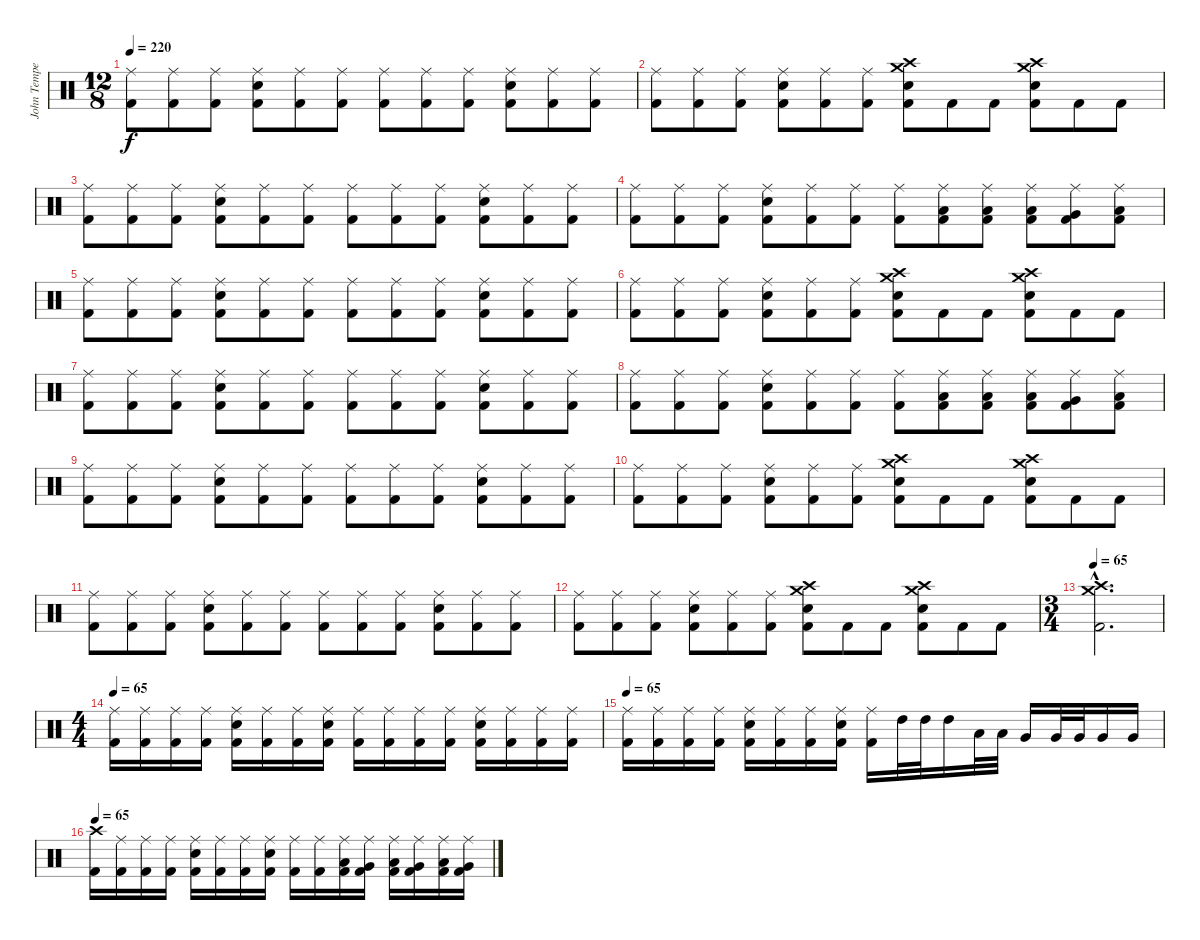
\track ("John Tempesta" "John Tempe") {instrument percussion}
\staff {score}
\articulation defaults
\ts (12 8)
\tempo 220
\clef neutral
\ks c
("Ride (middle)" "Kick (hit) 2").8{dy f} ("Ride (middle)" "Kick (hit) 2").8 ("Ride (middle)" "Kick (hit) 2").8 ("Ride (middle)" "Electric Snare (hit)" "Kick (hit) 2").8 ("Ride (middle)" "Kick (hit) 2").8 ("Ride (middle)" "Kick (hit) 2").8 ("Ride (middle)" "Kick (hit) 2").8 ("Ride (middle)" "Kick (hit) 2").8 ("Ride (middle)" "Kick (hit) 2").8 ("Ride (middle)" "Electric Snare (hit)" "Kick (hit) 2").8 ("Ride (middle)" "Kick (hit) 2").8 ("Ride (middle)" "Kick (hit) 2").8 |
("Ride (middle)" "Kick (hit) 2").8 ("Ride (middle)" "Kick (hit) 2").8 ("Ride (middle)" "Kick (hit) 2").8 ("Ride (middle)" "Electric Snare (hit)" "Kick (hit) 2").8 ("Ride (middle)" "Kick (hit) 2").8 ("Ride (middle)" "Kick (hit) 2").8 ("Crash medium (hit)" "Crash high (hit)" "Electric Snare (hit)" "Kick (hit) 2").8 "Kick (hit) 2".8 "Kick (hit) 2".8 ("Crash medium (hit)" "Crash high (hit)" "Electric Snare (hit)" "Kick (hit) 2").8 "Kick (hit) 2".8 "Kick (hit) 2".8 |
("Ride (middle)" "Kick (hit) 2").8 ("Ride (middle)" "Kick (hit) 2").8 ("Ride (middle)" "Kick (hit) 2").8 ("Ride (middle)" "Electric Snare (hit)" "Kick (hit) 2").8 ("Ride (middle)" "Kick (hit) 2").8 ("Ride (middle)" "Kick (hit) 2").8 ("Ride (middle)" "Kick (hit) 2").8 ("Ride (middle)" "Kick (hit) 2").8 ("Ride (middle)" "Kick (hit) 2").8 ("Ride (middle)" "Electric Snare (hit)" "Kick (hit) 2").8 ("Ride (middle)" "Kick (hit) 2").8 ("Ride (middle)" "Kick (hit) 2").8 |
("Ride (middle)" "Kick (hit) 2").8 ("Ride (middle)" "Kick (hit) 2").8 ("Ride (middle)" "Kick (hit) 2").8 ("Ride (middle)" "Electric Snare (hit)" "Kick (hit) 2").8 ("Ride (middle)" "Kick (hit) 2").8 ("Ride (middle)" "Kick (hit) 2").8 ("Ride (middle)" "Kick (hit) 2").8 ("Ride (middle)" "Low Tom (hit)" "Kick (hit) 2").8 ("Ride (middle)" "Low Tom (hit)" "Kick (hit) 2").8 ("Ride (middle)" "Low Tom (hit)" "Kick (hit) 2").8 ("Ride (middle)" "Very Low Tom (hit)" "Kick (hit) 2").8 ("Ride (middle)" "Low Floor Tom (hit)" "Kick (hit) 2").8 |
("Ride (middle)" "Kick (hit) 2").8 ("Ride (middle)" "Kick (hit) 2").8 ("Ride (middle)" "Kick (hit) 2").8 ("Ride (middle)" "Electric Snare (hit)" "Kick (hit) 2").8 ("Ride (middle)" "Kick (hit) 2").8 ("Ride (middle)" "Kick (hit) 2").8 ("Ride (middle)" "Kick (hit) 2").8 ("Ride (middle)" "Kick (hit) 2").8 ("Ride (middle)" "Kick (hit) 2").8 ("Ride (middle)" "Electric Snare (hit)" "Kick (hit) 2").8 ("Ride (middle)" "Kick (hit) 2").8 ("Ride (middle)" "Kick (hit) 2").8 |
("Ride (middle)" "Kick (hit) 2").8 ("Ride (middle)" "Kick (hit) 2").8 ("Ride (middle)" "Kick (hit) 2").8 ("Ride (middle)" "Electric Snare (hit)" "Kick (hit) 2").8 ("Ride (middle)" "Kick (hit) 2").8 ("Ride (middle)" "Kick (hit) 2").8 ("Crash medium (hit)" "Crash high (hit)" "Electric Snare (hit)" "Kick (hit) 2").8 "Kick (hit) 2".8 "Kick (hit) 2".8 ("Crash medium (hit)" "Crash high (hit)" "Electric Snare (hit)" "Kick (hit) 2").8 "Kick (hit) 2".8 "Kick (hit) 2".8 |
("Ride (middle)" "Kick (hit) 2").8 ("Ride (middle)" "Kick (hit) 2").8 ("Ride (middle)" "Kick (hit) 2").8 ("Ride (middle)" "Electric Snare (hit)" "Kick (hit) 2").8 ("Ride (middle)" "Kick (hit) 2").8 ("Ride (middle)" "Kick (hit) 2").8 ("Ride (middle)" "Kick (hit) 2").8 ("Ride (middle)" "Kick (hit) 2").8 ("Ride (middle)" "Kick (hit) 2").8 ("Ride (middle)" "Electric Snare (hit)" "Kick (hit) 2").8 ("Ride (middle)" "Kick (hit) 2").8 ("Ride (middle)" "Kick (hit) 2").8 |
("Ride (middle)" "Kick (hit) 2").8 ("Ride (middle)" "Kick (hit) 2").8 ("Ride (middle)" "Kick (hit) 2").8 ("Ride (middle)" "Electric Snare (hit)" "Kick (hit) 2").8 ("Ride (middle)" "Kick (hit) 2").8 ("Ride (middle)" "Kick (hit) 2").8 ("Ride (middle)" "Kick (hit) 2").8 ("Ride (middle)" "Low Tom (hit)" "Kick (hit) 2").8 ("Ride (middle)" "Low Tom (hit)" "Kick (hit) 2").8 ("Ride (middle)" "Low Tom (hit)" "Kick (hit) 2").8 ("Ride (middle)" "Very Low Tom (hit)" "Kick (hit) 2").8 ("Ride (middle)" "Low Floor Tom (hit)" "Kick (hit) 2").8 |
("Ride (middle)" "Kick (hit) 2").8 ("Ride (middle)" "Kick (hit) 2").8 ("Ride (middle)" "Kick (hit) 2").8 ("Ride (middle)" "Electric Snare (hit)" "Kick (hit) 2").8 ("Ride (middle)" "Kick (hit) 2").8 ("Ride (middle)" "Kick (hit) 2").8 ("Ride (middle)" "Kick (hit) 2").8 ("Ride (middle)" "Kick (hit) 2").8 ("Ride (middle)" "Kick (hit) 2").8 ("Ride (middle)" "Electric Snare (hit)" "Kick (hit) 2").8 ("Ride (middle)" "Kick (hit) 2").8 ("Ride (middle)" "Kick (hit) 2").8 |
("Ride (middle)" "Kick (hit) 2").8 ("Ride (middle)" "Kick (hit) 2").8 ("Ride (middle)" "Kick (hit) 2").8 ("Ride (middle)" "Electric Snare (hit)" "Kick (hit) 2").8 ("Ride (middle)" "Kick (hit) 2").8 ("Ride (middle)" "Kick (hit) 2").8 ("Crash medium (hit)" "Crash high (hit)" "Electric Snare (hit)" "Kick (hit) 2").8 "Kick (hit) 2".8 "Kick (hit) 2".8 ("Crash medium (hit)" "Crash high (hit)" "Electric Snare (hit)" "Kick (hit) 2").8 "Kick (hit) 2".8 "Kick (hit) 2".8 |
("Ride (middle)" "Kick (hit) 2").8 ("Ride (middle)" "Kick (hit) 2").8 ("Ride (middle)" "Kick (hit) 2").8 ("Ride (middle)" "Electric Snare (hit)" "Kick (hit) 2").8 ("Ride (middle)" "Kick (hit) 2").8 ("Ride (middle)" "Kick (hit) 2").8 ("Ride (middle)" "Kick (hit) 2").8 ("Ride (middle)" "Kick (hit) 2").8 ("Ride (middle)" "Kick (hit) 2").8 ("Ride (middle)" "Electric Snare (hit)" "Kick (hit) 2").8 ("Ride (middle)" "Kick (hit) 2").8 ("Ride (middle)" "Kick (hit) 2").8 |
("Ride (middle)" "Kick (hit) 2").8 ("Ride (middle)" "Kick (hit) 2").8 ("Ride (middle)" "Kick (hit) 2").8 ("Ride (middle)" "Electric Snare (hit)" "Kick (hit) 2").8 ("Ride (middle)" "Kick (hit) 2").8 ("Ride (middle)" "Kick (hit) 2").8 ("Crash medium (hit)" "Crash high (hit)" "Electric Snare (hit)" "Kick (hit) 2").8 "Kick (hit) 2".8 "Kick (hit) 2".8 ("Crash medium (hit)" "Crash high (hit)" "Electric Snare (hit)" "Kick (hit) 2").8 "Kick (hit) 2".8 "Kick (hit) 2".8 |
\ts (3 4)
\tempo 65
("Crash medium (hit)"{hac} "Crash high (hit)"{hac} "Kick (hit) 2"{hac}).2{d} |
\ts (4 4)
\tempo 65
("Ride (middle)" "Kick (hit) 2").16 ("Ride (middle)" "Kick (hit) 2").16 ("Ride (middle)" "Kick (hit) 2").16 ("Ride (middle)" "Kick (hit) 2").16 ("Ride (middle)" "Electric Snare (hit)" "Kick (hit) 2").16 ("Ride (middle)" "Kick (hit) 2").16 ("Ride (middle)" "Kick (hit) 2").16 ("Ride (middle)" "Electric Snare (hit)" "Kick (hit) 2").16 ("Ride (middle)" "Kick (hit) 2").16 ("Ride (middle)" "Kick (hit) 2").16 ("Ride (middle)" "Kick (hit) 2").16 ("Ride (middle)" "Kick (hit) 2").16 ("Ride (middle)" "Electric Snare (hit)" "Kick (hit) 2").16 ("Ride (middle)" "Kick (hit) 2").16 ("Ride (middle)" "Kick (hit) 2").16 ("Ride (middle)" "Kick (hit) 2").16 |
\tempo 65
("Ride (middle)" "Kick (hit) 2").16 ("Ride (middle)" "Kick (hit) 2").16 ("Ride (middle)" "Kick (hit) 2").16 ("Ride (middle)" "Kick (hit) 2").16 ("Ride (middle)" "Electric Snare (hit)" "Kick (hit) 2").16 ("Ride (middle)" "Kick (hit) 2").16 ("Ride (middle)" "Kick (hit) 2").16 ("Ride (middle)" "Electric Snare (hit)" "Kick (hit) 2").16 ("Ride (middle)" "Kick (hit) 2").16 "High Tom (hit)".32 "High Tom (hit)".32 "High Tom (hit)".16 "Low Tom (hit)".32 "Low Tom (hit)".32 "Very Low Tom (hit)".16 "Very Low Tom (hit)".32 "Very Low Tom (hit)".32 "Very Low Tom (hit)".16 "Very Low Tom (hit)".16 |
\tempo 65
("Crash high (hit)" "Kick (hit) 2").16 ("Ride (middle)" "Kick (hit) 2").16 ("Ride (middle)" "Kick (hit) 2").16 ("Ride (middle)" "Kick (hit) 2").16 ("Ride (middle)" "Electric Snare (hit)" "Kick (hit) 2").16 ("Ride (middle)" "Kick (hit) 2").16 ("Ride (middle)" "Kick (hit) 2").16 ("Ride (middle)" "Electric Snare (hit)" "Kick (hit) 2").16 ("Ride (middle)" "Kick (hit) 2").16 ("Ride (middle)" "Kick (hit) 2").16 ("Ride (middle)" "Low Tom (hit)" "Kick (hit) 2").16 ("Ride (middle)" "Very Low Tom (hit)" "Kick (hit) 2").16 ("Ride (middle)" "Low Tom (hit)" "Kick (hit) 2").16 ("Ride (middle)" "Very Low Tom (hit)" "Kick (hit) 2").16 ("Ride (middle)" "Low Tom (hit)" "Kick (hit) 2").16 ("Ride (middle)" "Very Low Tom (hit)" "Kick (hit) 2").16
